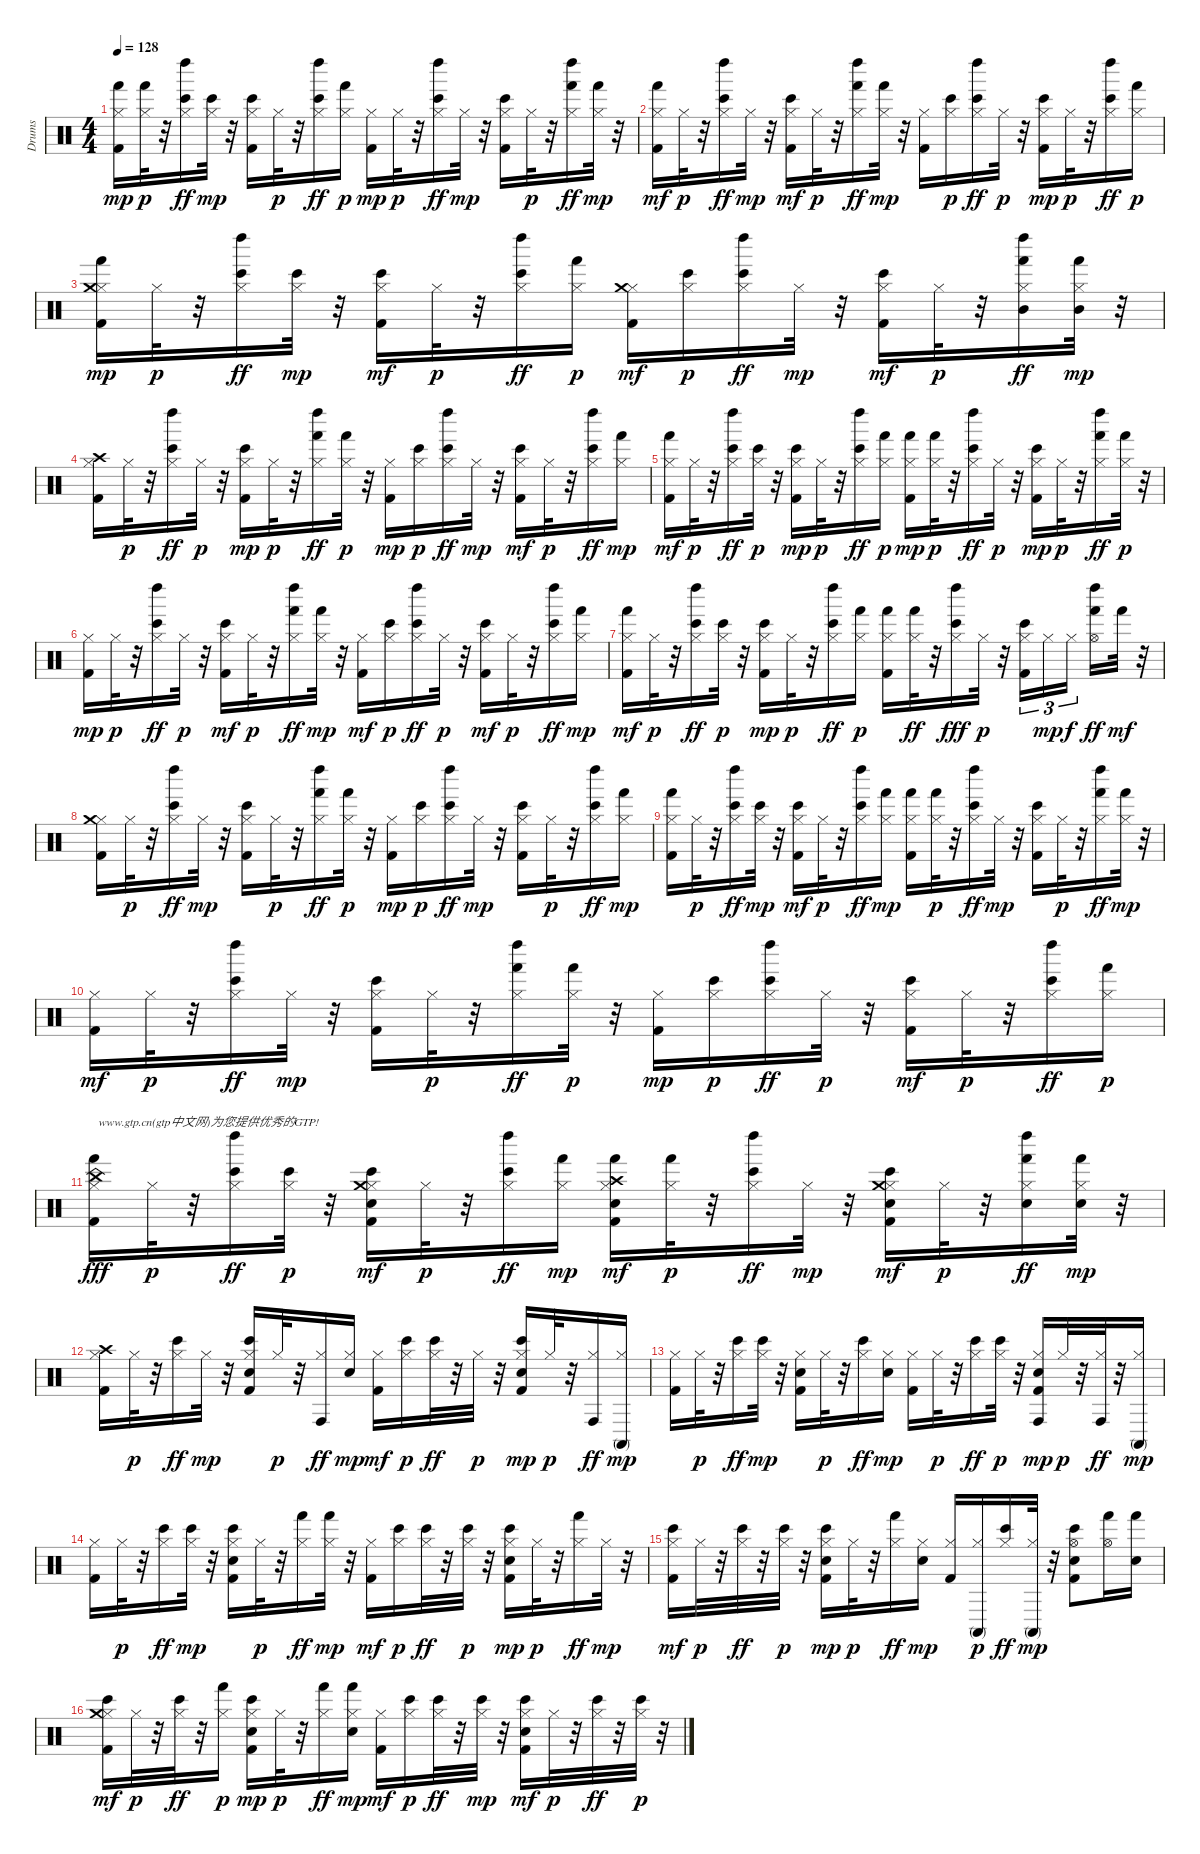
\track ("Drums" "Drums") {instrument percussion}
\staff {score}
\articulation defaults
\ts (4 4)
\tempo 128
\clef neutral
\ks c
("Kick (hit) 2" "Hand (hit)" "Hi-Hat (closed)").16{dy mp} ("Hand (hit)" "Hi-Hat (closed)").32{dy p} r.32 ("Bongo High (hit)" "Left Maraca (hit)" "Hi-Hat (closed)").16{dy ff} ("Bongo High (hit)" "Hi-Hat (closed)").32{dy mp} r.32 ("Kick (hit) 2" "Bongo High (hit)" "Hi-Hat (closed)").16 "Hi-Hat (closed)".32{dy p} r.32 ("Bongo High (hit)" "Left Maraca (hit)" "Hi-Hat (closed)").16{dy ff} ("Hand (hit)" "Hi-Hat (closed)").16{dy p} ("Kick (hit) 2" "Hi-Hat (closed)").16{dy mp} "Hi-Hat (closed)".32{dy p} r.32 ("Bongo High (hit)" "Left Maraca (hit)" "Hi-Hat (closed)").16{dy ff} "Hi-Hat (closed)".32{dy mp} r.32 ("Kick (hit) 2" "Bongo High (hit)" "Hi-Hat (closed)").16 "Hi-Hat (closed)".32{dy p} r.32 ("Hand (hit)" "Left Maraca (hit)" "Hi-Hat (closed)").16{dy ff} ("Hand (hit)" "Hi-Hat (closed)").32{dy mp} r.32 |
("Kick (hit) 2" "Hand (hit)" "Hi-Hat (closed)").16{dy mf} "Hi-Hat (closed)".32{dy p} r.32 ("Bongo High (hit)" "Left Maraca (hit)" "Hi-Hat (closed)").16{dy ff} "Hi-Hat (closed)".32{dy mp} r.32 ("Kick (hit) 2" "Bongo High (hit)" "Hi-Hat (closed)").16{dy mf} "Hi-Hat (closed)".32{dy p} r.32 ("Hand (hit)" "Left Maraca (hit)" "Hi-Hat (closed)").16{dy ff} ("Hand (hit)" "Hi-Hat (closed)").32{dy mp} r.32 ("Kick (hit) 2" "Hi-Hat (closed)").16 ("Bongo High (hit)" "Hi-Hat (closed)").16{dy p} ("Bongo High (hit)" "Left Maraca (hit)" "Hi-Hat (closed)").16{dy ff} "Hi-Hat (closed)".32{dy p} r.32 ("Kick (hit) 2" "Bongo High (hit)" "Hi-Hat (closed)").16{dy mp} "Hi-Hat (closed)".32{dy p} r.32 ("Bongo High (hit)" "Left Maraca (hit)" "Hi-Hat (closed)").16{dy ff} ("Hand (hit)" "Hi-Hat (closed)").16{dy p} |
("Kick (hit) 2" "Hand (hit)" "Hi-Hat (closed)" "Crash medium (hit)").16{dy mp} "Hi-Hat (closed)".32{dy p} r.32 ("Bongo High (hit)" "Left Maraca (hit)" "Hi-Hat (closed)").16{dy ff} ("Bongo High (hit)" "Hi-Hat (closed)").32{dy mp} r.32 ("Kick (hit) 2" "Bongo High (hit)" "Hi-Hat (closed)").16{dy mf} "Hi-Hat (closed)".32{dy p} r.32 ("Bongo High (hit)" "Left Maraca (hit)" "Hi-Hat (closed)").16{dy ff} ("Hand (hit)" "Hi-Hat (closed)").16{dy p} ("Kick (hit) 2" "Hi-Hat (closed)" "Crash medium (hit)").16{dy mf} ("Bongo High (hit)" "Hi-Hat (closed)").16{dy p} ("Bongo High (hit)" "Left Maraca (hit)" "Hi-Hat (closed)").16{dy ff} "Hi-Hat (closed)".32{dy mp} r.32 ("Kick (hit) 2" "Bongo High (hit)" "Hi-Hat (closed)").16{dy mf} "Hi-Hat (closed)".32{dy p} r.32 ("Hand (hit)" "Left Maraca (hit)" "Mid Tom (hit)" "Hi-Hat (closed)").16{dy ff} ("Hand (hit)" "Mid Tom (hit)" "Hi-Hat (closed)").32{dy mp} r.32 |
("Kick (hit) 2" "Hi-Hat (closed)" "Crash high (hit)").16 "Hi-Hat (closed)".32{dy p} r.32 ("Bongo High (hit)" "Left Maraca (hit)" "Hi-Hat (closed)").16{dy ff} "Hi-Hat (closed)".32{dy p} r.32 ("Kick (hit) 2" "Bongo High (hit)" "Hi-Hat (closed)").16{dy mp} "Hi-Hat (closed)".32{dy p} r.32 ("Hand (hit)" "Left Maraca (hit)" "Hi-Hat (closed)").16{dy ff} ("Hand (hit)" "Hi-Hat (closed)").32{dy p} r.32 ("Kick (hit) 2" "Hi-Hat (closed)").16{dy mp} ("Bongo High (hit)" "Hi-Hat (closed)").16{dy p} ("Bongo High (hit)" "Left Maraca (hit)" "Hi-Hat (closed)").16{dy ff} "Hi-Hat (closed)".32{dy mp} r.32 ("Kick (hit) 2" "Bongo High (hit)" "Hi-Hat (closed)").16{dy mf} "Hi-Hat (closed)".32{dy p} r.32 ("Bongo High (hit)" "Left Maraca (hit)" "Hi-Hat (closed)").16{dy ff} ("Hand (hit)" "Hi-Hat (closed)").16{dy mp} |
("Kick (hit) 2" "Hand (hit)" "Hi-Hat (closed)").16{dy mf} "Hi-Hat (closed)".32{dy p} r.32 ("Bongo High (hit)" "Left Maraca (hit)" "Hi-Hat (closed)").16{dy ff} ("Bongo High (hit)" "Hi-Hat (closed)").32{dy p} r.32 ("Kick (hit) 2" "Bongo High (hit)" "Hi-Hat (closed)").16{dy mp} "Hi-Hat (closed)".32{dy p} r.32 ("Bongo High (hit)" "Left Maraca (hit)" "Hi-Hat (closed)").16{dy ff} ("Hand (hit)" "Hi-Hat (closed)").16{dy p} ("Kick (hit) 2" "Hand (hit)" "Hi-Hat (closed)").16{dy mp} ("Hand (hit)" "Hi-Hat (closed)").32{dy p} r.32 ("Bongo High (hit)" "Left Maraca (hit)" "Hi-Hat (closed)").16{dy ff} "Hi-Hat (closed)".32{dy p} r.32 ("Kick (hit) 2" "Bongo High (hit)" "Hi-Hat (closed)").16{dy mp} "Hi-Hat (closed)".32{dy p} r.32 ("Hand (hit)" "Left Maraca (hit)" "Hi-Hat (closed)").16{dy ff} ("Hand (hit)" "Hi-Hat (closed)").32{dy p} r.32 |
("Kick (hit) 2" "Hi-Hat (closed)").16{dy mp} "Hi-Hat (closed)".32{dy p} r.32 ("Bongo High (hit)" "Left Maraca (hit)" "Hi-Hat (closed)").16{dy ff} "Hi-Hat (closed)".32{dy p} r.32 ("Kick (hit) 2" "Bongo High (hit)" "Hi-Hat (closed)").16{dy mf} "Hi-Hat (closed)".32{dy p} r.32 ("Hand (hit)" "Left Maraca (hit)" "Hi-Hat (closed)").16{dy ff} ("Hand (hit)" "Hi-Hat (closed)").32{dy mp} r.32 ("Kick (hit) 2" "Hi-Hat (closed)").16{dy mf} ("Bongo High (hit)" "Hi-Hat (closed)").16{dy p} ("Bongo High (hit)" "Left Maraca (hit)" "Hi-Hat (closed)").16{dy ff} "Hi-Hat (closed)".32{dy p} r.32 ("Kick (hit) 2" "Bongo High (hit)" "Hi-Hat (closed)").16{dy mf} "Hi-Hat (closed)".32{dy p} r.32 ("Bongo High (hit)" "Left Maraca (hit)" "Hi-Hat (closed)").16{dy ff} ("Hand (hit)" "Hi-Hat (closed)").16{dy mp} |
("Kick (hit) 2" "Hand (hit)" "Hi-Hat (closed)").16{dy mf} "Hi-Hat (closed)".32{dy p} r.32 ("Bongo High (hit)" "Left Maraca (hit)" "Hi-Hat (closed)").16{dy ff} ("Bongo High (hit)" "Hi-Hat (closed)").32{dy p} r.32 ("Kick (hit) 2" "Bongo High (hit)" "Hi-Hat (closed)").16{dy mp} "Hi-Hat (closed)".32{dy p} r.32 ("Bongo High (hit)" "Left Maraca (hit)" "Hi-Hat (closed)").16{dy ff} ("Hand (hit)" "Hi-Hat (closed)").16{dy p} ("Kick (hit) 2" "Hand (hit)" "Hi-Hat (closed)").16 ("Hand (hit)" "Hi-Hat (closed)").32{dy ff} r.32 ("Bongo High (hit)" "Left Maraca (hit)" "Hi-Hat (closed)").16{dy fff} "Hi-Hat (closed)".32{dy p} r.32 ("Kick (hit) 2" "Bongo High (hit)" "Hi-Hat (closed)").16{tu (3 2)} "Hi-Hat (closed)".16{tu (3 2) dy mp} "Hi-Hat (closed)".16{tu (3 2) dy f beam splitsecondary} ("Hand (hit)" "Left Maraca (hit)" "Hi-Hat (open)").16{dy ff} "Hand (hit)".32{dy mf} r.32 |
("Kick (hit) 2" "Hi-Hat (closed)" "Crash medium (hit)").16 "Hi-Hat (closed)".32{dy p} r.32 ("Bongo High (hit)" "Left Maraca (hit)" "Hi-Hat (closed)").16{dy ff} "Hi-Hat (closed)".32{dy mp} r.32 ("Kick (hit) 2" "Bongo High (hit)" "Hi-Hat (closed)").16 "Hi-Hat (closed)".32{dy p} r.32 ("Hand (hit)" "Left Maraca (hit)" "Hi-Hat (closed)").16{dy ff} ("Hand (hit)" "Hi-Hat (closed)").32{dy p} r.32 ("Kick (hit) 2" "Hi-Hat (closed)").16{dy mp} ("Bongo High (hit)" "Hi-Hat (closed)").16{dy p} ("Bongo High (hit)" "Left Maraca (hit)" "Hi-Hat (closed)").16{dy ff} "Hi-Hat (closed)".32{dy mp} r.32 ("Kick (hit) 2" "Bongo High (hit)" "Hi-Hat (closed)").16 "Hi-Hat (closed)".32{dy p} r.32 ("Bongo High (hit)" "Left Maraca (hit)" "Hi-Hat (closed)").16{dy ff} ("Hand (hit)" "Hi-Hat (closed)").16{dy mp} |
("Kick (hit) 2" "Hand (hit)" "Hi-Hat (closed)").16 "Hi-Hat (closed)".32{dy p} r.32 ("Bongo High (hit)" "Left Maraca (hit)" "Hi-Hat (closed)").16{dy ff} ("Bongo High (hit)" "Hi-Hat (closed)").32{dy mp} r.32 ("Kick (hit) 2" "Bongo High (hit)" "Hi-Hat (closed)").16{dy mf} "Hi-Hat (closed)".32{dy p} r.32 ("Bongo High (hit)" "Left Maraca (hit)" "Hi-Hat (closed)").16{dy ff} ("Hand (hit)" "Hi-Hat (closed)").16{dy mp} ("Kick (hit) 2" "Hand (hit)" "Hi-Hat (closed)").16 ("Hand (hit)" "Hi-Hat (closed)").32{dy p} r.32 ("Bongo High (hit)" "Left Maraca (hit)" "Hi-Hat (closed)").16{dy ff} "Hi-Hat (closed)".32{dy mp} r.32 ("Kick (hit) 2" "Bongo High (hit)" "Hi-Hat (closed)").16 "Hi-Hat (closed)".32{dy p} r.32 ("Hand (hit)" "Left Maraca (hit)" "Hi-Hat (closed)").16{dy ff} ("Hand (hit)" "Hi-Hat (closed)").32{dy mp} r.32 |
("Kick (hit) 2" "Hi-Hat (closed)").16{dy mf} "Hi-Hat (closed)".32{dy p} r.32 ("Bongo High (hit)" "Left Maraca (hit)" "Hi-Hat (closed)").16{dy ff} "Hi-Hat (closed)".32{dy mp} r.32 ("Kick (hit) 2" "Bongo High (hit)" "Hi-Hat (closed)").16 "Hi-Hat (closed)".32{dy p} r.32 ("Hand (hit)" "Left Maraca (hit)" "Hi-Hat (closed)").16{dy ff} ("Hand (hit)" "Hi-Hat (closed)").32{dy p} r.32 ("Kick (hit) 2" "Hi-Hat (closed)").16{dy mp} ("Bongo High (hit)" "Hi-Hat (closed)").16{dy p} ("Bongo High (hit)" "Left Maraca (hit)" "Hi-Hat (closed)").16{dy ff} "Hi-Hat (closed)".32{dy p} r.32 ("Kick (hit) 2" "Bongo High (hit)" "Hi-Hat (closed)").16{dy mf} "Hi-Hat (closed)".32{dy p} r.32 ("Bongo High (hit)" "Left Maraca (hit)" "Hi-Hat (closed)").16{dy ff} ("Hand (hit)" "Hi-Hat (closed)").16{dy p} |
("Kick (hit) 2" "Hand (hit)" "Hi-Hat (closed)" "China (hit)").16{txt "www.gtp.cn(gtp中文网)为您提供优秀的GTP!" dy fff} "Hi-Hat (closed)".32{dy p} r.32 ("Bongo High (hit)" "Left Maraca (hit)" "Hi-Hat (closed)").16{dy ff} ("Bongo High (hit)" "Hi-Hat (closed)").32{dy p} r.32 ("Kick (hit) 2" "Bongo High (hit)" "Electric Snare (hit)" "Hi-Hat (closed)" "Crash medium (hit)").16{dy mf} "Hi-Hat (closed)".32{dy p} r.32 ("Bongo High (hit)" "Left Maraca (hit)" "Hi-Hat (closed)").16{dy ff} ("Hand (hit)" "Hi-Hat (closed)").16{dy mp} ("Kick (hit) 2" "Hand (hit)" "Electric Snare (hit)" "Hi-Hat (closed)" "Crash high (hit)").16{dy mf} ("Hand (hit)" "Hi-Hat (closed)").32{dy p} r.32 ("Bongo High (hit)" "Left Maraca (hit)" "Hi-Hat (closed)").16{dy ff} "Hi-Hat (closed)".32{dy mp} r.32 ("Kick (hit) 2" "Bongo High (hit)" "Electric Snare (hit)" "Hi-Hat (closed)" "Crash medium (hit)").16{dy mf} "Hi-Hat (closed)".32{dy p} r.32 ("Hand (hit)" "Left Maraca (hit)" "Electric Snare (hit)" "Hi-Hat (closed)").16{dy ff} ("Hand (hit)" "Electric Snare (hit)" "Hi-Hat (closed)").32{dy mp} r.32 |
("Kick (hit) 2" "Hi-Hat (closed)" "Crash high (hit)").16 "Hi-Hat (closed)".32{dy p} r.32 ("Bongo High (hit)" "Hi-Hat (closed)").16{dy ff} "Hi-Hat (closed)".32{dy mp} r.32 ("Kick (hit) 2" "Bongo High (hit)" "Electric Snare (hit)" "Hi-Hat (closed)").16 "Hi-Hat (closed)".32{dy p} r.32 ("Conga high (hit)" "Hi-Hat (closed)").16{dy ff} ("Electric Snare (hit)" "Hi-Hat (closed)").16{dy mp} ("Kick (hit) 2" "Hi-Hat (closed)").16{dy mf} ("Bongo High (hit)" "Hi-Hat (closed)").16{dy p} ("Bongo High (hit)" "Hi-Hat (closed)").32{dy ff} r.32 "Hi-Hat (closed)".32{dy p} r.32 ("Kick (hit) 2" "Bongo High (hit)" "Electric Snare (hit)" "Hi-Hat (closed)").16{dy mp} "Hi-Hat (closed)".32{dy p} r.32 ("Conga high (hit)" "Hi-Hat (closed)").16{dy ff} ("Conga high (mute)" "Hi-Hat (closed)").16{dy mp} |
("Kick (hit) 2" "Hi-Hat (closed)").16 "Hi-Hat (closed)".32{dy p} r.32 ("Bongo High (hit)" "Hi-Hat (closed)").16{dy ff} ("Bongo High (hit)" "Hi-Hat (closed)").32{dy mp} r.32 ("Kick (hit) 2" "Electric Snare (hit)" "Hi-Hat (closed)").16 "Hi-Hat (closed)".32{dy p} r.32 ("Bongo High (hit)" "Hi-Hat (closed)").16{dy ff} ("Electric Snare (hit)" "Hi-Hat (closed)").16{dy mp} ("Kick (hit) 2" "Hi-Hat (closed)").16 "Hi-Hat (closed)".32{dy p} r.32 ("Bongo High (hit)" "Hi-Hat (closed)").16{dy ff} ("Bongo High (hit)" "Hi-Hat (closed)").32{dy p} r.32 ("Kick (hit) 2" "Conga high (hit)" "Electric Snare (hit)" "Hi-Hat (closed)").16{dy mp} "Hi-Hat (closed)".32{dy p} r.32 ("Conga high (hit)" "Hi-Hat (closed)").32{dy ff} r.32 ("Conga high (mute)" "Hi-Hat (closed)").16{dy mp} |
("Kick (hit) 2" "Hi-Hat (closed)").16 "Hi-Hat (closed)".32{dy p} r.32 ("Bongo High (hit)" "Hi-Hat (closed)").16{dy ff} ("Bongo High (hit)" "Hi-Hat (closed)").32{dy mp} r.32 ("Kick (hit) 2" "Bongo High (hit)" "Electric Snare (hit)" "Hi-Hat (closed)").16 "Hi-Hat (closed)".32{dy p} r.32 ("Hand (hit)" "Hi-Hat (closed)").16{dy ff} ("Hand (hit)" "Hi-Hat (closed)").32{dy mp} r.32 ("Kick (hit) 2" "Hi-Hat (closed)").16{dy mf} ("Bongo High (hit)" "Hi-Hat (closed)").16{dy p} ("Bongo High (hit)" "Hi-Hat (closed)").32{dy ff} r.32 ("Bongo High (hit)" "Hi-Hat (closed)").32{dy p} r.32 ("Kick (hit) 2" "Bongo High (hit)" "Electric Snare (hit)" "Hi-Hat (closed)").16{dy mp} "Hi-Hat (closed)".32{dy p} r.32 ("Hand (hit)" "Hi-Hat (closed)").16{dy ff} "Hi-Hat (closed)".32{dy mp} r.32 |
("Kick (hit) 2" "Bongo High (hit)" "Hi-Hat (closed)").16{dy mf} "Hi-Hat (closed)".32{dy p} r.32 ("Bongo High (hit)" "Hi-Hat (closed)").32{dy ff} r.32 ("Bongo High (hit)" "Hi-Hat (closed)").32{dy p} r.32 ("Kick (hit) 2" "Bongo High (hit)" "Electric Snare (hit)" "Hi-Hat (closed)").16{dy mp} "Hi-Hat (closed)".32{dy p} r.32 ("Hand (hit)" "Hi-Hat (closed)").16{dy ff} ("Electric Snare (hit)" "Hi-Hat (closed)").16{dy mp} ("Kick (hit) 2" "Hi-Hat (closed)").16 ("Conga high (mute)" "Hi-Hat (closed)").16{dy p} ("Bongo High (hit)" "Hi-Hat (closed)").16{dy ff} ("Conga high (mute)" "Hi-Hat (closed)").32{dy mp} r.32 ("Kick (hit) 2" "Bongo High (hit)" "Electric Snare (hit)" "Hi-Hat (open)").8 ("Hand (hit)" "Hi-Hat (open)").16 ("Hand (hit)" "Electric Snare (hit)").16 |
("Kick (hit) 2" "Bongo High (hit)" "Hi-Hat (closed)" "Crash medium (hit)").16{dy mf} "Hi-Hat (closed)".32{dy p} r.32 ("Bongo High (hit)" "Hi-Hat (closed)").32{dy ff} r.32 ("Hand (hit)" "Hi-Hat (closed)").16{dy p} ("Kick (hit) 2" "Bongo High (hit)" "Electric Snare (hit)" "Hi-Hat (closed)").16{dy mp} "Hi-Hat (closed)".32{dy p} r.32 ("Hand (hit)" "Hi-Hat (closed)").16{dy ff} ("Hand (hit)" "Electric Snare (hit)" "Hi-Hat (closed)").16{dy mp} ("Kick (hit) 2" "Hi-Hat (closed)").16{dy mf} ("Bongo High (hit)" "Hi-Hat (closed)").16{dy p} ("Bongo High (hit)" "Hi-Hat (closed)").32{dy ff} r.32 ("Bongo High (hit)" "Hi-Hat (closed)").32{dy mp} r.32 ("Kick (hit) 2" "Bongo High (hit)" "Electric Snare (hit)" "Hi-Hat (closed)").16{dy mf} "Hi-Hat (closed)".32{dy p} r.32 ("Bongo High (hit)" "Hi-Hat (closed)").32{dy ff} r.32 ("Bongo High (hit)" "Hi-Hat (closed)").32{dy p} r.32
